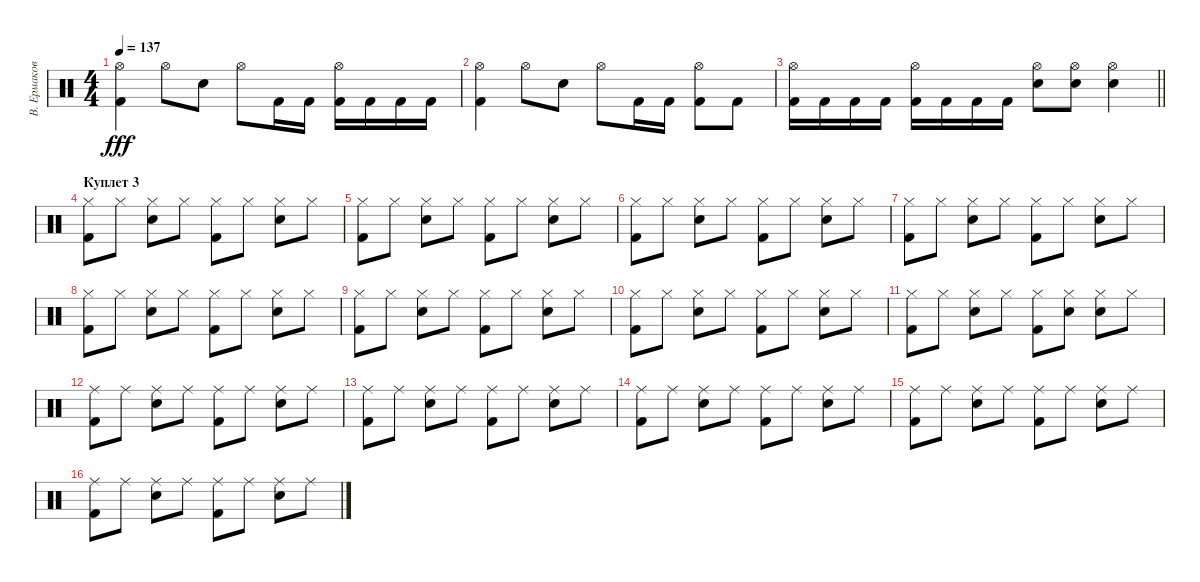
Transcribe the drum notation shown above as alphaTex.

\track ("В. Ермаков" "В. Ермаков") {instrument percussion}
\staff {score}
\articulation defaults
\ts (4 4)
\tempo 137
\clef neutral
\ks c
("Hi-Hat (open)" "Kick (hit) 2").4{dy fff} "Hi-Hat (open)".8 "Snare (hit) 2".8 "Hi-Hat (open)".8 "Kick (hit) 2".16 "Kick (hit) 2".16 ("Hi-Hat (open)" "Kick (hit) 2").16 "Kick (hit) 2".16 "Kick (hit) 2".16 "Kick (hit) 2".16 |
("Hi-Hat (open)" "Kick (hit) 2").4 "Hi-Hat (open)".8 "Snare (hit) 2".8 "Hi-Hat (open)".8 "Kick (hit) 2".16 "Kick (hit) 2".16 ("Hi-Hat (open)" "Kick (hit) 2").8 "Kick (hit) 2".8 |
\barLineRight lightlight
("Hi-Hat (open)" "Kick (hit) 2").16 "Kick (hit) 2".16 "Kick (hit) 2".16 "Kick (hit) 2".16 ("Hi-Hat (open)" "Kick (hit) 2").16 "Kick (hit) 2".16 "Kick (hit) 2".16 "Kick (hit) 2".16 ("Hi-Hat (open)" "Snare (hit) 2").8 ("Hi-Hat (open)" "Snare (hit) 2").8 ("Hi-Hat (open)" "Snare (hit) 2").4 |
\section ("" "Куплет 3")
("Hi-Hat (closed)" "Kick (hit) 2").8 "Hi-Hat (closed)".8 ("Hi-Hat (closed)" "Snare (hit) 2").8 "Hi-Hat (closed)".8 ("Hi-Hat (closed)" "Kick (hit) 2").8 "Hi-Hat (closed)".8 ("Hi-Hat (closed)" "Snare (hit) 2").8 "Hi-Hat (closed)".8 |
("Hi-Hat (closed)" "Kick (hit) 2").8 "Hi-Hat (closed)".8 ("Hi-Hat (closed)" "Snare (hit) 2").8 "Hi-Hat (closed)".8 ("Hi-Hat (closed)" "Kick (hit) 2").8 "Hi-Hat (closed)".8 ("Hi-Hat (closed)" "Snare (hit) 2").8 "Hi-Hat (closed)".8 |
("Hi-Hat (closed)" "Kick (hit) 2").8 "Hi-Hat (closed)".8 ("Hi-Hat (closed)" "Snare (hit) 2").8 "Hi-Hat (closed)".8 ("Hi-Hat (closed)" "Kick (hit) 2").8 "Hi-Hat (closed)".8 ("Hi-Hat (closed)" "Snare (hit) 2").8 "Hi-Hat (closed)".8 |
("Hi-Hat (closed)" "Kick (hit) 2").8 "Hi-Hat (closed)".8 ("Hi-Hat (closed)" "Snare (hit) 2").8 "Hi-Hat (closed)".8 ("Hi-Hat (closed)" "Kick (hit) 2").8 "Hi-Hat (closed)".8 ("Hi-Hat (closed)" "Snare (hit) 2").8 "Hi-Hat (closed)".8 |
("Hi-Hat (closed)" "Kick (hit) 2").8 "Hi-Hat (closed)".8 ("Hi-Hat (closed)" "Snare (hit) 2").8 "Hi-Hat (closed)".8 ("Hi-Hat (closed)" "Kick (hit) 2").8 "Hi-Hat (closed)".8 ("Hi-Hat (closed)" "Snare (hit) 2").8 "Hi-Hat (closed)".8 |
("Hi-Hat (closed)" "Kick (hit) 2").8 "Hi-Hat (closed)".8 ("Hi-Hat (closed)" "Snare (hit) 2").8 "Hi-Hat (closed)".8 ("Hi-Hat (closed)" "Kick (hit) 2").8 "Hi-Hat (closed)".8 ("Hi-Hat (closed)" "Snare (hit) 2").8 "Hi-Hat (closed)".8 |
("Hi-Hat (closed)" "Kick (hit) 2").8 "Hi-Hat (closed)".8 ("Hi-Hat (closed)" "Snare (hit) 2").8 "Hi-Hat (closed)".8 ("Hi-Hat (closed)" "Kick (hit) 2").8 "Hi-Hat (closed)".8 ("Hi-Hat (closed)" "Snare (hit) 2").8 "Hi-Hat (closed)".8 |
("Hi-Hat (closed)" "Kick (hit) 2").8 "Hi-Hat (closed)".8 ("Hi-Hat (closed)" "Snare (hit) 2").8 "Hi-Hat (closed)".8 ("Hi-Hat (closed)" "Kick (hit) 2").8 ("Hi-Hat (closed)" "Snare (hit) 2").8 ("Hi-Hat (closed)" "Snare (hit) 2").8 "Hi-Hat (closed)".8 |
("Ride (middle)" "Kick (hit) 2").8 "Ride (middle)".8 ("Ride (middle)" "Snare (hit) 2").8 "Ride (middle)".8 ("Ride (middle)" "Kick (hit) 2").8 "Ride (middle)".8 ("Ride (middle)" "Snare (hit) 2").8 "Ride (middle)".8 |
("Ride (middle)" "Kick (hit) 2").8 "Ride (middle)".8 ("Ride (middle)" "Snare (hit) 2").8 "Ride (middle)".8 ("Ride (middle)" "Kick (hit) 2").8 "Ride (middle)".8 ("Ride (middle)" "Snare (hit) 2").8 "Ride (middle)".8 |
("Ride (middle)" "Kick (hit) 2").8 "Ride (middle)".8 ("Ride (middle)" "Snare (hit) 2").8 "Ride (middle)".8 ("Ride (middle)" "Kick (hit) 2").8 "Ride (middle)".8 ("Ride (middle)" "Snare (hit) 2").8 "Ride (middle)".8 |
("Ride (middle)" "Kick (hit) 2").8 "Ride (middle)".8 ("Ride (middle)" "Snare (hit) 2").8 "Ride (middle)".8 ("Ride (middle)" "Kick (hit) 2").8 "Ride (middle)".8 ("Ride (middle)" "Snare (hit) 2").8 "Ride (middle)".8 |
("Ride (middle)" "Kick (hit) 2").8 "Ride (middle)".8 ("Ride (middle)" "Snare (hit) 2").8 "Ride (middle)".8 ("Ride (middle)" "Kick (hit) 2").8 "Ride (middle)".8 ("Ride (middle)" "Snare (hit) 2").8 "Ride (middle)".8
